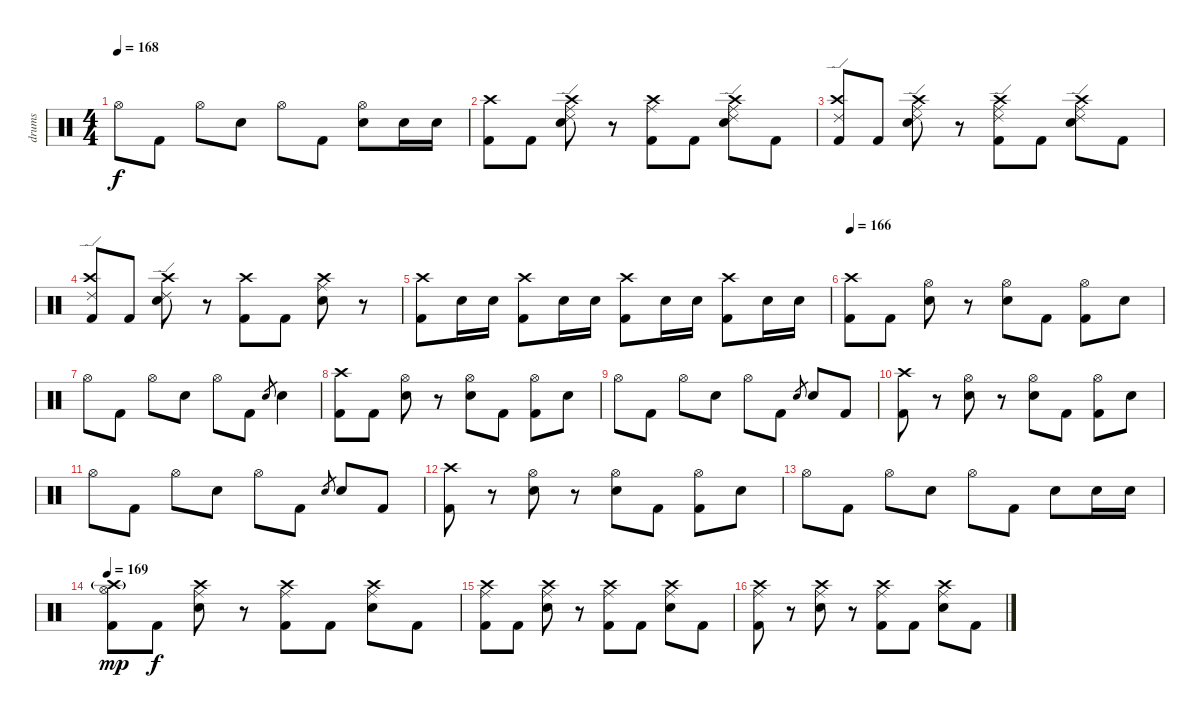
\track ("drums" "drums") {instrument percussion}
\staff {score}
\articulation defaults
\ts (4 4)
\tempo 168
\clef neutral
\ks c "Hi-Hat (open)".8{dy f} "Kick (hit) 2".8 "Hi-Hat (open)".8 "Snare (hit) 2".8 "Hi-Hat (open)".8 "Kick (hit) 2".8
("Hi-Hat (open)" "Snare (hit) 2").8 "Snare (hit) 2".16 "Snare (hit) 2".16 |
("Crash high (hit)" "Kick (hit) 2").8 "Kick (hit) 2".8 ("Crash high (hit)" "Ride (edge) 2" "Ride (middle)" "Snare (hit) 2").8 r.8 ("Crash high (hit)" "Ride (middle)" "Kick (hit) 2").8 "Kick (hit) 2".8 ("Crash high (hit)" "Ride (edge) 2" "Ride (middle)" "Snare (hit) 2").8 "Kick (hit) 2".8 |
("Crash high (hit)" "Ride (edge) 2" "Kick (hit) 2").8 "Kick (hit) 2".8 ("Crash high (hit)" "Ride (edge) 2" "Ride (middle)" "Snare (hit) 2").8 r.8 ("Crash high (hit)" "Ride (edge) 2" "Ride (middle)" "Kick (hit) 2").8 "Kick (hit) 2".8 ("Crash high (hit)" "Ride (edge) 2" "Ride (middle)" "Snare (hit) 2").8 "Kick (hit) 2".8 |
("Crash high (hit)" "Ride (edge) 2" "Kick (hit) 2").8 "Kick (hit) 2".8 ("Crash high (hit)" "Ride (edge) 2" "Snare (hit) 2").8 r.8 ("Crash high (hit)" "Kick (hit) 2").8 "Kick (hit) 2".8 ("Crash high (hit)" "Ride (middle)" "Snare (hit) 2").8 r.8 |
("Crash high (hit)" "Kick (hit) 2").8 "Snare (hit) 2".16 "Snare (hit) 2".16 ("Crash high (hit)" "Kick (hit) 2").8 "Snare (hit) 2".16 "Snare (hit) 2".16 ("Crash high (hit)" "Kick (hit) 2").8 "Snare (hit) 2".16 "Snare (hit) 2".16 ("Crash high (hit)" "Kick (hit) 2").8 "Snare (hit) 2".16 "Snare (hit) 2".16 |
\tempo 166
("Crash high (hit)" "Kick (hit) 2").8 "Kick (hit) 2".8 ("Hi-Hat (open)" "Snare (hit) 2").8 r.8 ("Hi-Hat (open)" "Snare (hit) 2").8 "Kick (hit) 2".8 ("Hi-Hat (open)" "Kick (hit) 2").8 "Snare (hit) 2".8 |
"Hi-Hat (open)".8 "Kick (hit) 2".8 "Hi-Hat (open)".8 "Snare (hit) 2".8 "Hi-Hat (open)".8 "Kick (hit) 2".8 "Snare (hit) 2".8{gr} "Snare (hit) 2".4 |
("Crash high (hit)" "Kick (hit) 2").8 "Kick (hit) 2".8 ("Hi-Hat (open)" "Snare (hit) 2").8 r.8 ("Hi-Hat (open)" "Snare (hit) 2").8 "Kick (hit) 2".8 ("Hi-Hat (open)" "Kick (hit) 2").8 "Snare (hit) 2".8 |
"Hi-Hat (open)".8 "Kick (hit) 2".8 "Hi-Hat (open)".8 "Snare (hit) 2".8 "Hi-Hat (open)".8 "Kick (hit) 2".8 "Snare (hit) 2".8{gr} "Snare (hit) 2".8 "Kick (hit) 2".8 |
("Crash high (hit)" "Kick (hit) 2").8 r.8 ("Hi-Hat (open)" "Snare (hit) 2").8 r.8 ("Hi-Hat (open)" "Snare (hit) 2").8 "Kick (hit) 2".8 ("Hi-Hat (open)" "Kick (hit) 2").8 "Snare (hit) 2".8 |
"Hi-Hat (open)".8 "Kick (hit) 2".8 "Hi-Hat (open)".8 "Snare (hit) 2".8 "Hi-Hat (open)".8 "Kick (hit) 2".8 "Snare (hit) 2".8{gr} "Snare (hit) 2".8 "Kick (hit) 2".8 |
("Crash high (hit)" "Kick (hit) 2").8 r.8 ("Hi-Hat (open)" "Snare (hit) 2").8 r.8 ("Hi-Hat (open)" "Snare (hit) 2").8 "Kick (hit) 2".8 ("Hi-Hat (open)" "Kick (hit) 2").8 "Snare (hit) 2".8 |
"Hi-Hat (open)".8 "Kick (hit) 2".8 "Hi-Hat (open)".8 "Snare (hit) 2".8 "Hi-Hat (open)".8 "Kick (hit) 2".8 "Snare (hit) 2".8 "Snare (hit) 2".16 "Snare (hit) 2".16 |
\tempo 169
("Crash high (hit)"{g} "Hi-Hat (open)" "Kick (hit) 2").8{dy mp} "Kick (hit) 2".8{dy f} ("Crash high (hit)" "Ride (middle)" "Snare (hit) 2").8 r.8 ("Crash high (hit)" "Ride (middle)" "Kick (hit) 2").8 "Kick (hit) 2".8 ("Crash high (hit)" "Ride (middle)" "Snare (hit) 2").8 "Kick (hit) 2".8 |
("Crash high (hit)" "Ride (middle)" "Kick (hit) 2").8 "Kick (hit) 2".8 ("Crash high (hit)" "Ride (middle)" "Snare (hit) 2").8 r.8 ("Crash high (hit)" "Ride (middle)" "Kick (hit) 2").8 "Kick (hit) 2".8 ("Crash high (hit)" "Ride (middle)" "Snare (hit) 2").8 "Kick (hit) 2".8 |
("Crash high (hit)" "Ride (middle)" "Kick (hit) 2").8 r.8 ("Crash high (hit)" "Ride (middle)" "Snare (hit) 2").8 r.8 ("Crash high (hit)" "Ride (middle)" "Kick (hit) 2").8 "Kick (hit) 2".8 ("Crash high (hit)" "Ride (middle)" "Snare (hit) 2").8 "Kick (hit) 2".8
